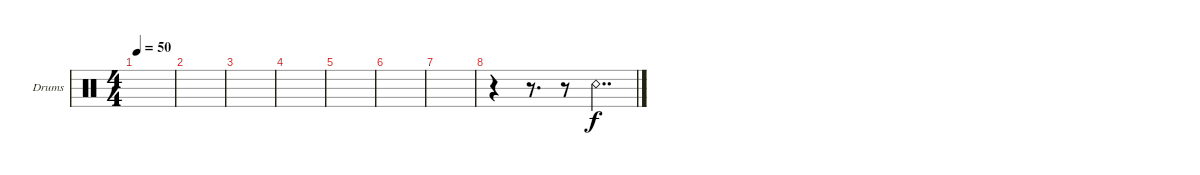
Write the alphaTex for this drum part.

\defaultSystemsLayout 4
\bracketExtendMode groupsimilarinstruments
\firstSystemTrackNameOrientation horizontal
\otherSystemsTrackNameOrientation horizontal
\track ("Илья" "Drums") {instrument percussion}
\staff {score}
\articulation defaults
\ts (4 4)
\tempo 50
\clef neutral
\scale
0.333333
\ks c
|
\scale
0.333333 |
\scale
0.333333 |
\scale
0.333333 |
\scale
0.333333 |
|
|
r.4 r.8{d} r.8 "Snare (rim shot)".4{dd}
